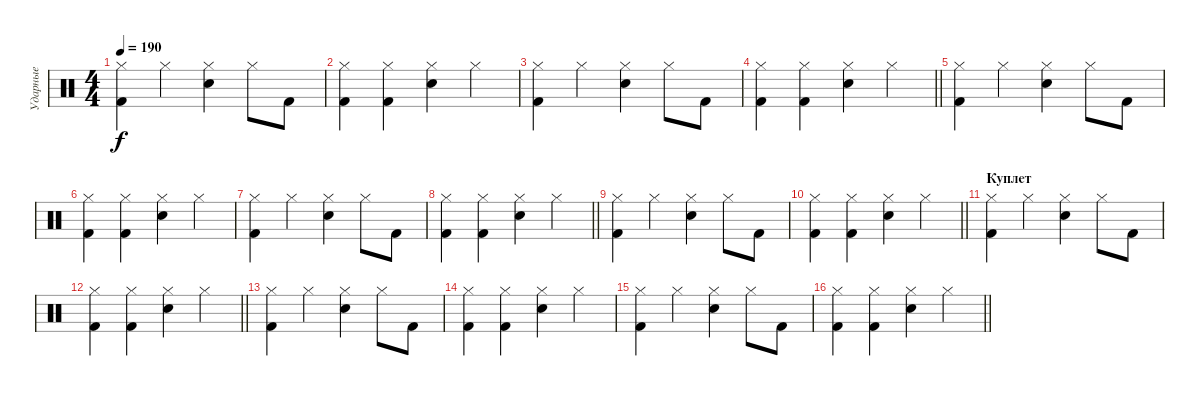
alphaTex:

\track ("Ударные" "Ударные") {instrument percussion}
\staff {score}
\articulation defaults
\ts (4 4)
\tempo 190
\clef neutral
\ks c
("Kick (hit) 2" "Hi-Hat (closed)").4{dy f} "Hi-Hat (closed)".4 ("Hand Clap (hit)" "Hi-Hat (closed)").4 "Hi-Hat (closed)".8 "Kick (hit) 2".8 |
("Kick (hit) 2" "Hi-Hat (closed)").4 ("Kick (hit) 2" "Hi-Hat (closed)").4 ("Hand Clap (hit)" "Hi-Hat (closed)").4 "Hi-Hat (closed)".4 |
("Kick (hit) 2" "Hi-Hat (closed)").4 "Hi-Hat (closed)".4 ("Hand Clap (hit)" "Hi-Hat (closed)").4 "Hi-Hat (closed)".8 "Kick (hit) 2".8 |
\barLineRight lightlight
("Kick (hit) 2" "Hi-Hat (closed)").4 ("Kick (hit) 2" "Hi-Hat (closed)").4 ("Hand Clap (hit)" "Hi-Hat (closed)").4 "Hi-Hat (closed)".4 |
("Kick (hit) 2" "Hi-Hat (closed)").4 "Hi-Hat (closed)".4 ("Hand Clap (hit)" "Hi-Hat (closed)").4 "Hi-Hat (closed)".8 "Kick (hit) 2".8 |
("Kick (hit) 2" "Hi-Hat (closed)").4 ("Kick (hit) 2" "Hi-Hat (closed)").4 ("Hand Clap (hit)" "Hi-Hat (closed)").4 "Hi-Hat (closed)".4 |
("Kick (hit) 2" "Hi-Hat (closed)").4 "Hi-Hat (closed)".4 ("Hand Clap (hit)" "Hi-Hat (closed)").4 "Hi-Hat (closed)".8 "Kick (hit) 2".8 |
\barLineRight lightlight
("Kick (hit) 2" "Hi-Hat (closed)").4 ("Kick (hit) 2" "Hi-Hat (closed)").4 ("Hand Clap (hit)" "Hi-Hat (closed)").4 "Hi-Hat (closed)".4 |
("Kick (hit) 2" "Hi-Hat (closed)").4 "Hi-Hat (closed)".4 ("Hand Clap (hit)" "Hi-Hat (closed)").4 "Hi-Hat (closed)".8 "Kick (hit) 2".8 |
\barLineRight lightlight
("Kick (hit) 2" "Hi-Hat (closed)").4 ("Kick (hit) 2" "Hi-Hat (closed)").4 ("Hand Clap (hit)" "Hi-Hat (closed)").4 "Hi-Hat (closed)".4 |
\section ("" "Куплет")
("Kick (hit) 2" "Hi-Hat (closed)").4 "Hi-Hat (closed)".4 ("Hand Clap (hit)" "Hi-Hat (closed)").4 "Hi-Hat (closed)".8 "Kick (hit) 2".8 |
\barLineRight lightlight
("Kick (hit) 2" "Hi-Hat (closed)").4 ("Kick (hit) 2" "Hi-Hat (closed)").4 ("Hand Clap (hit)" "Hi-Hat (closed)").4 "Hi-Hat (closed)".4 |
("Kick (hit) 2" "Hi-Hat (closed)").4 "Hi-Hat (closed)".4 ("Hand Clap (hit)" "Hi-Hat (closed)").4 "Hi-Hat (closed)".8 "Kick (hit) 2".8 |
("Kick (hit) 2" "Hi-Hat (closed)").4 ("Kick (hit) 2" "Hi-Hat (closed)").4 ("Hand Clap (hit)" "Hi-Hat (closed)").4 "Hi-Hat (closed)".4 |
("Kick (hit) 2" "Hi-Hat (closed)").4 "Hi-Hat (closed)".4 ("Hand Clap (hit)" "Hi-Hat (closed)").4 "Hi-Hat (closed)".8 "Kick (hit) 2".8 |
\barLineRight lightlight
("Kick (hit) 2" "Hi-Hat (closed)").4 ("Kick (hit) 2" "Hi-Hat (closed)").4 ("Hand Clap (hit)" "Hi-Hat (closed)").4 "Hi-Hat (closed)".4
